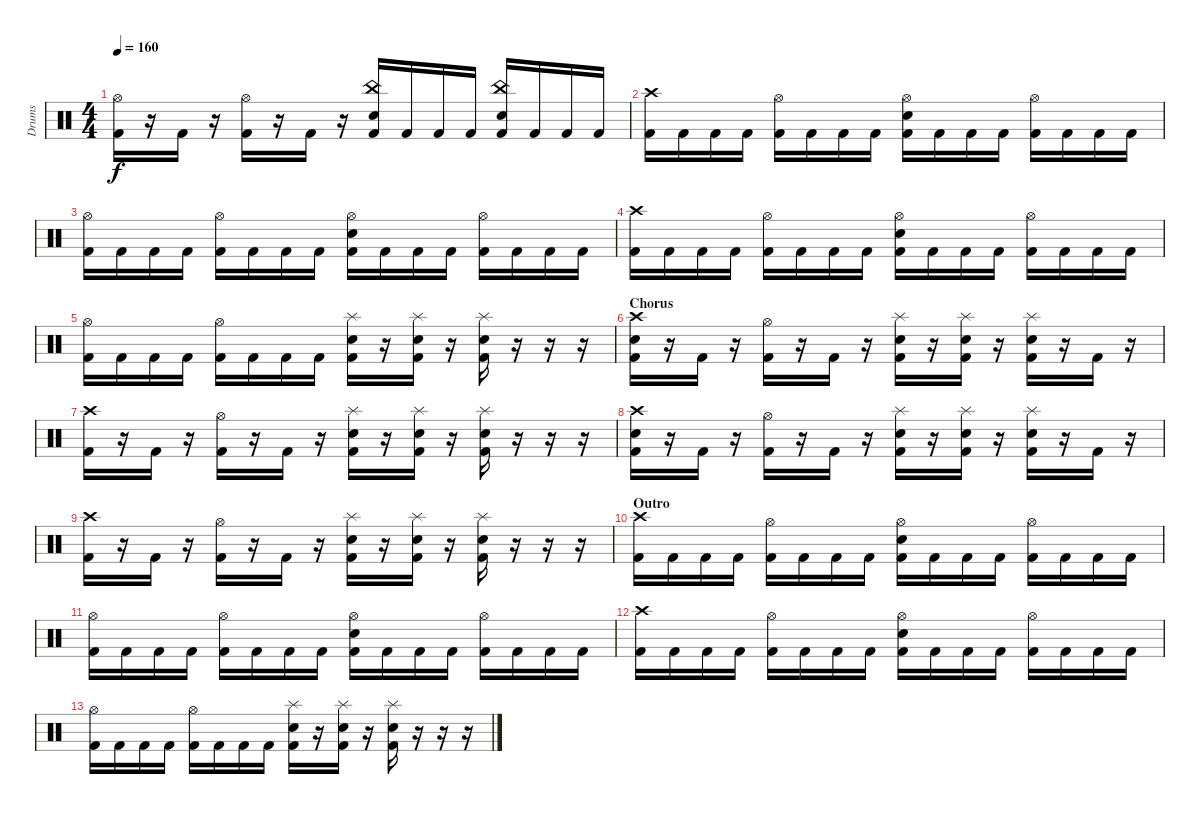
\track ("Drums" "Drums") {instrument percussion}
\staff {score}
\articulation defaults
\ts (4 4)
\tempo 160
\clef neutral
\ks c
("Hi-Hat (open)" "Kick (hit) 2").16{dy f} r.16 "Kick (hit) 2".16 r.16 ("Hi-Hat (open)" "Kick (hit) 2").16 r.16 "Kick (hit) 2".16 r.16 ("China (hit)" "Snare (hit) 2" "Kick (hit) 2").16 "Kick (hit) 2".16 "Kick (hit) 2".16 "Kick (hit) 2".16 ("China (hit)" "Snare (hit) 2" "Kick (hit) 2").16 "Kick (hit) 2".16 "Kick (hit) 2".16 "Kick (hit) 2".16 |
("Crash high (hit)" "Kick (hit) 2").16 "Kick (hit) 2".16 "Kick (hit) 2".16 "Kick (hit) 2".16 ("Hi-Hat (open)" "Kick (hit) 2").16 "Kick (hit) 2".16 "Kick (hit) 2".16 "Kick (hit) 2".16 ("Hi-Hat (open)" "Snare (hit) 2" "Kick (hit) 2").16 "Kick (hit) 2".16 "Kick (hit) 2".16 "Kick (hit) 2".16 ("Hi-Hat (open)" "Kick (hit) 2").16 "Kick (hit) 2".16 "Kick (hit) 2".16 "Kick (hit) 2".16 |
("Hi-Hat (open)" "Kick (hit) 2").16 "Kick (hit) 2".16 "Kick (hit) 2".16 "Kick (hit) 2".16 ("Hi-Hat (open)" "Kick (hit) 2").16 "Kick (hit) 2".16 "Kick (hit) 2".16 "Kick (hit) 2".16 ("Hi-Hat (open)" "Snare (hit) 2" "Kick (hit) 2").16 "Kick (hit) 2".16 "Kick (hit) 2".16 "Kick (hit) 2".16 ("Hi-Hat (open)" "Kick (hit) 2").16 "Kick (hit) 2".16 "Kick (hit) 2".16 "Kick (hit) 2".16 |
("Crash high (hit)" "Kick (hit) 2").16 "Kick (hit) 2".16 "Kick (hit) 2".16 "Kick (hit) 2".16 ("Hi-Hat (open)" "Kick (hit) 2").16 "Kick (hit) 2".16 "Kick (hit) 2".16 "Kick (hit) 2".16 ("Hi-Hat (open)" "Snare (hit) 2" "Kick (hit) 2").16 "Kick (hit) 2".16 "Kick (hit) 2".16 "Kick (hit) 2".16 ("Hi-Hat (open)" "Kick (hit) 2").16 "Kick (hit) 2".16 "Kick (hit) 2".16 "Kick (hit) 2".16 |
("Hi-Hat (open)" "Kick (hit) 2").16 "Kick (hit) 2".16 "Kick (hit) 2".16 "Kick (hit) 2".16 ("Hi-Hat (open)" "Kick (hit) 2").16 "Kick (hit) 2".16 "Kick (hit) 2".16 "Kick (hit) 2".16 ("Splash (hit)" "Snare (hit) 2" "Kick (hit) 2").16 r.16 ("Splash (hit)" "Snare (hit) 2" "Kick (hit) 2").16 r.16 ("Splash (hit)" "Snare (hit) 2" "Kick (hit) 2").16 r.16 r.16 r.16 |
\section ("" "Chorus")
("Crash high (hit)" "Snare (hit) 2" "Kick (hit) 2").16 r.16 "Kick (hit) 2".16 r.16 ("Hi-Hat (open)" "Kick (hit) 2").16 r.16 "Kick (hit) 2".16 r.16 ("Splash (hit)" "Snare (hit) 2" "Kick (hit) 2").16 r.16 ("Splash (hit)" "Snare (hit) 2" "Kick (hit) 2").16 r.16 ("Splash (hit)" "Snare (hit) 2" "Kick (hit) 2").16 r.16 "Kick (hit) 2".16 r.16 |
("Crash high (hit)" "Kick (hit) 2").16 r.16 "Kick (hit) 2".16 r.16 ("Hi-Hat (open)" "Kick (hit) 2").16 r.16 "Kick (hit) 2".16 r.16 ("Splash (hit)" "Snare (hit) 2" "Kick (hit) 2").16 r.16 ("Splash (hit)" "Snare (hit) 2" "Kick (hit) 2").16 r.16 ("Splash (hit)" "Snare (hit) 2" "Kick (hit) 2").16 r.16 r.16 r.16 |
("Crash high (hit)" "Snare (hit) 2" "Kick (hit) 2").16 r.16 "Kick (hit) 2".16 r.16 ("Hi-Hat (open)" "Kick (hit) 2").16 r.16 "Kick (hit) 2".16 r.16 ("Splash (hit)" "Snare (hit) 2" "Kick (hit) 2").16 r.16 ("Splash (hit)" "Snare (hit) 2" "Kick (hit) 2").16 r.16 ("Splash (hit)" "Snare (hit) 2" "Kick (hit) 2").16 r.16 "Kick (hit) 2".16 r.16 |
("Crash high (hit)" "Kick (hit) 2").16 r.16 "Kick (hit) 2".16 r.16 ("Hi-Hat (open)" "Kick (hit) 2").16 r.16 "Kick (hit) 2".16 r.16 ("Splash (hit)" "Snare (hit) 2" "Kick (hit) 2").16 r.16 ("Splash (hit)" "Snare (hit) 2" "Kick (hit) 2").16 r.16 ("Splash (hit)" "Snare (hit) 2" "Kick (hit) 2").16 r.16 r.16 r.16 |
\section ("" "Outro")
("Crash high (hit)" "Kick (hit) 2").16 "Kick (hit) 2".16 "Kick (hit) 2".16 "Kick (hit) 2".16 ("Hi-Hat (open)" "Kick (hit) 2").16 "Kick (hit) 2".16 "Kick (hit) 2".16 "Kick (hit) 2".16 ("Hi-Hat (open)" "Snare (hit) 2" "Kick (hit) 2").16 "Kick (hit) 2".16 "Kick (hit) 2".16 "Kick (hit) 2".16 ("Hi-Hat (open)" "Kick (hit) 2").16 "Kick (hit) 2".16 "Kick (hit) 2".16 "Kick (hit) 2".16 |
("Hi-Hat (open)" "Kick (hit) 2").16 "Kick (hit) 2".16 "Kick (hit) 2".16 "Kick (hit) 2".16 ("Hi-Hat (open)" "Kick (hit) 2").16 "Kick (hit) 2".16 "Kick (hit) 2".16 "Kick (hit) 2".16 ("Hi-Hat (open)" "Snare (hit) 2" "Kick (hit) 2").16 "Kick (hit) 2".16 "Kick (hit) 2".16 "Kick (hit) 2".16 ("Hi-Hat (open)" "Kick (hit) 2").16 "Kick (hit) 2".16 "Kick (hit) 2".16 "Kick (hit) 2".16 |
("Crash high (hit)" "Kick (hit) 2").16 "Kick (hit) 2".16 "Kick (hit) 2".16 "Kick (hit) 2".16 ("Hi-Hat (open)" "Kick (hit) 2").16 "Kick (hit) 2".16 "Kick (hit) 2".16 "Kick (hit) 2".16 ("Hi-Hat (open)" "Snare (hit) 2" "Kick (hit) 2").16 "Kick (hit) 2".16 "Kick (hit) 2".16 "Kick (hit) 2".16 ("Hi-Hat (open)" "Kick (hit) 2").16 "Kick (hit) 2".16 "Kick (hit) 2".16 "Kick (hit) 2".16 |
("Hi-Hat (open)" "Kick (hit) 2").16 "Kick (hit) 2".16 "Kick (hit) 2".16 "Kick (hit) 2".16 ("Hi-Hat (open)" "Kick (hit) 2").16 "Kick (hit) 2".16 "Kick (hit) 2".16 "Kick (hit) 2".16 ("Splash (hit)" "Snare (hit) 2" "Kick (hit) 2").16 r.16 ("Splash (hit)" "Snare (hit) 2" "Kick (hit) 2").16 r.16 ("Splash (hit)" "Snare (hit) 2" "Kick (hit) 2").16 r.16 r.16 r.16
